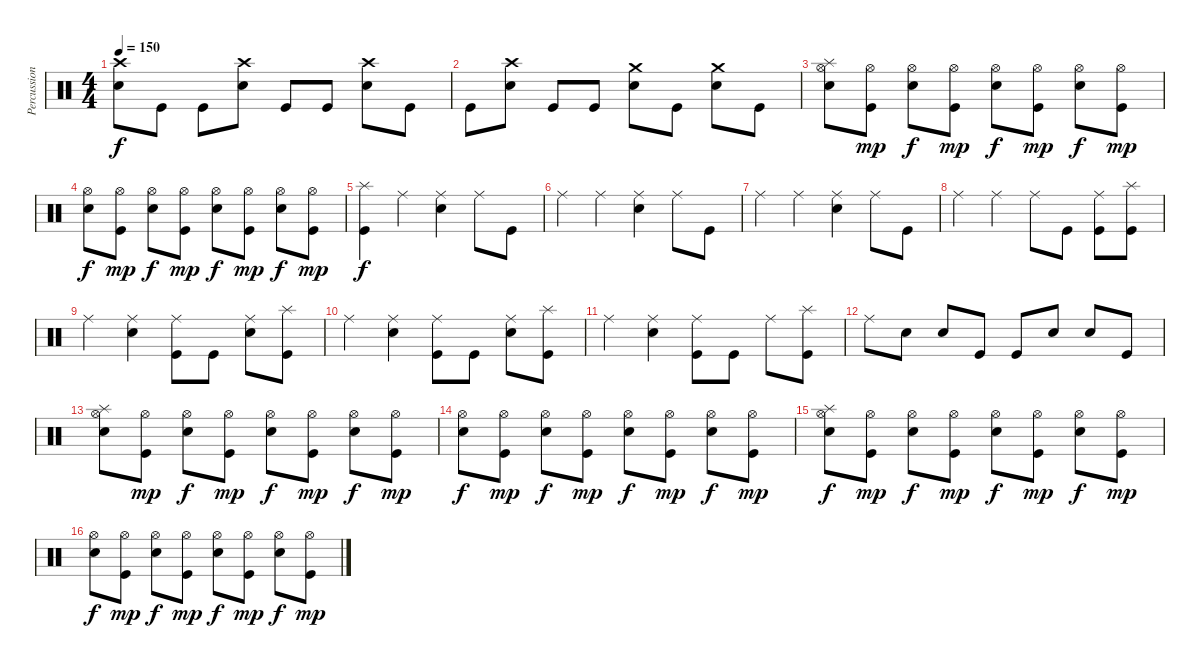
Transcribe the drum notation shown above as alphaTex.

\track ("Percussions" "Percussion") {instrument percussion}
\staff {score}
\articulation defaults
\ts (4 4)
\tempo 150
\clef neutral
\ks c
("Crash high (hit)" "Electric Snare (hit)").8{dy f} "Kick (hit)".8 "Kick (hit)".8 ("Crash high (hit)" "Electric Snare (hit)").8 "Kick (hit)".8 "Kick (hit)".8 ("Crash high (hit)" "Electric Snare (hit)").8 "Kick (hit)".8 |
"Kick (hit)".8 ("Crash high (hit)" "Electric Snare (hit)").8 "Kick (hit)".8 "Kick (hit)".8 ("Crash medium (hit)" "Electric Snare (hit)").8 "Kick (hit)".8 ("Crash medium (hit)" "Electric Snare (hit)").8 "Kick (hit)".8 |
("Splash (hit)" "Hi-Hat (open)" "Electric Snare (hit)").8 ("Hi-Hat (open)" "Kick (hit)").8{dy mp} ("Hi-Hat (open)" "Electric Snare (hit)").8{dy f} ("Hi-Hat (open)" "Kick (hit)").8{dy mp} ("Hi-Hat (open)" "Electric Snare (hit)").8{dy f} ("Hi-Hat (open)" "Kick (hit)").8{dy mp} ("Hi-Hat (open)" "Electric Snare (hit)").8{dy f} ("Hi-Hat (open)" "Kick (hit)").8{dy mp} |
("Hi-Hat (open)" "Electric Snare (hit)").8{dy f} ("Hi-Hat (open)" "Kick (hit)").8{dy mp} ("Hi-Hat (open)" "Electric Snare (hit)").8{dy f} ("Hi-Hat (open)" "Kick (hit)").8{dy mp} ("Hi-Hat (open)" "Electric Snare (hit)").8{dy f} ("Hi-Hat (open)" "Kick (hit)").8{dy mp} ("Hi-Hat (open)" "Electric Snare (hit)").8{dy f} ("Hi-Hat (open)" "Kick (hit)").8{dy mp} |
("Splash (hit)" "Kick (hit)").4{dy f} "Ride (middle)".4 ("Ride (middle)" "Electric Snare (hit)").4 "Ride (middle)".8 "Kick (hit)".8 |
"Ride (middle)".4 "Ride (middle)".4 ("Ride (middle)" "Electric Snare (hit)").4 "Ride (middle)".8 "Kick (hit)".8 |
"Ride (middle)".4 "Ride (middle)".4 ("Ride (middle)" "Electric Snare (hit)").4 "Ride (middle)".8 "Kick (hit)".8 |
"Ride (middle)".4 "Ride (middle)".4 "Ride (middle)".8 "Kick (hit)".8 ("Ride (middle)" "Kick (hit)").8 ("Splash (hit)" "Kick (hit)").8 |
"Ride (middle)".4 ("Ride (middle)" "Electric Snare (hit)").4 ("Ride (middle)" "Kick (hit)").8 "Kick (hit)".8 ("Ride (middle)" "Electric Snare (hit)").8 ("Splash (hit)" "Kick (hit)").8 |
"Ride (middle)".4 ("Ride (middle)" "Electric Snare (hit)").4 ("Ride (middle)" "Kick (hit)").8 "Kick (hit)".8 ("Ride (middle)" "Electric Snare (hit)").8 ("Splash (hit)" "Kick (hit)").8 |
"Ride (middle)".4 ("Ride (middle)" "Electric Snare (hit)").4 ("Ride (middle)" "Kick (hit)").8 "Kick (hit)".8 "Ride (middle)".8 ("Splash (hit)" "Kick (hit)").8 |
"Ride (middle)".8 "Electric Snare (hit)".8 "Electric Snare (hit)".8 "Kick (hit)".8 "Kick (hit)".8 "Electric Snare (hit)".8 "Electric Snare (hit)".8 "Kick (hit)".8 |
("Splash (hit)" "Hi-Hat (open)" "Electric Snare (hit)").8 ("Hi-Hat (open)" "Kick (hit)").8{dy mp} ("Hi-Hat (open)" "Electric Snare (hit)").8{dy f} ("Hi-Hat (open)" "Kick (hit)").8{dy mp} ("Hi-Hat (open)" "Electric Snare (hit)").8{dy f} ("Hi-Hat (open)" "Kick (hit)").8{dy mp} ("Hi-Hat (open)" "Electric Snare (hit)").8{dy f} ("Hi-Hat (open)" "Kick (hit)").8{dy mp} |
("Hi-Hat (open)" "Electric Snare (hit)").8{dy f} ("Hi-Hat (open)" "Kick (hit)").8{dy mp} ("Hi-Hat (open)" "Electric Snare (hit)").8{dy f} ("Hi-Hat (open)" "Kick (hit)").8{dy mp} ("Hi-Hat (open)" "Electric Snare (hit)").8{dy f} ("Hi-Hat (open)" "Kick (hit)").8{dy mp} ("Hi-Hat (open)" "Electric Snare (hit)").8{dy f} ("Hi-Hat (open)" "Kick (hit)").8{dy mp} |
("Splash (hit)" "Hi-Hat (open)" "Electric Snare (hit)").8{dy f} ("Hi-Hat (open)" "Kick (hit)").8{dy mp} ("Hi-Hat (open)" "Electric Snare (hit)").8{dy f} ("Hi-Hat (open)" "Kick (hit)").8{dy mp} ("Hi-Hat (open)" "Electric Snare (hit)").8{dy f} ("Hi-Hat (open)" "Kick (hit)").8{dy mp} ("Hi-Hat (open)" "Electric Snare (hit)").8{dy f} ("Hi-Hat (open)" "Kick (hit)").8{dy mp} |
("Hi-Hat (open)" "Electric Snare (hit)").8{dy f} ("Hi-Hat (open)" "Kick (hit)").8{dy mp} ("Hi-Hat (open)" "Electric Snare (hit)").8{dy f} ("Hi-Hat (open)" "Kick (hit)").8{dy mp} ("Hi-Hat (open)" "Electric Snare (hit)").8{dy f} ("Hi-Hat (open)" "Kick (hit)").8{dy mp} ("Hi-Hat (open)" "Electric Snare (hit)").8{dy f} ("Hi-Hat (open)" "Kick (hit)").8{dy mp}
